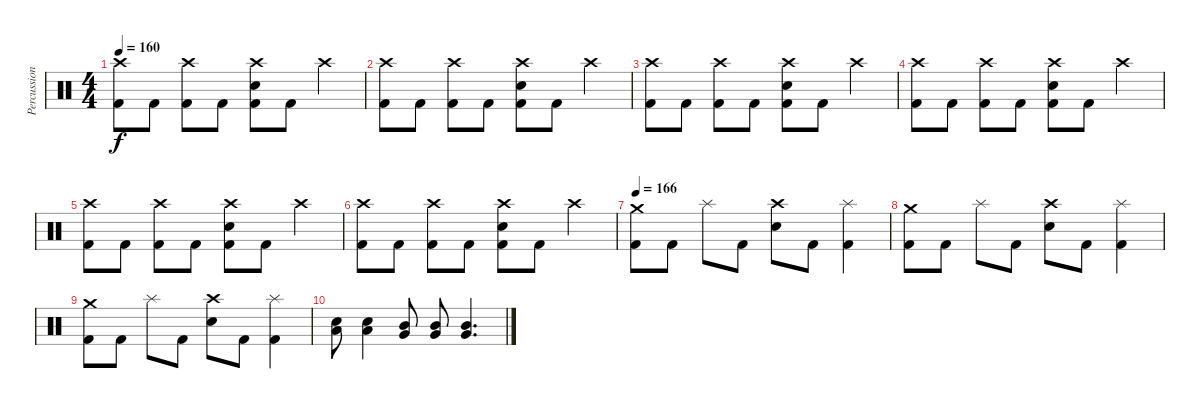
\track ("Percussion" "Percussion") {instrument percussion}
\staff {score}
\articulation defaults
\ts (4 4)
\tempo 160
\clef neutral
\ks c
("Crash high (hit)" "Kick (hit) 2").8{dy f} "Kick (hit) 2".8 ("Crash high (hit)" "Kick (hit) 2").8 "Kick (hit) 2".8 ("Crash high (hit)" "Electric Snare (hit)" "Kick (hit) 2").8 "Kick (hit) 2".8 "Crash high (hit)".4 |
("Crash high (hit)" "Kick (hit) 2").8 "Kick (hit) 2".8 ("Crash high (hit)" "Kick (hit) 2").8 "Kick (hit) 2".8 ("Crash high (hit)" "Electric Snare (hit)" "Kick (hit) 2").8 "Kick (hit) 2".8 "Crash high (hit)".4 |
("Crash high (hit)" "Kick (hit) 2").8 "Kick (hit) 2".8 ("Crash high (hit)" "Kick (hit) 2").8 "Kick (hit) 2".8 ("Crash high (hit)" "Electric Snare (hit)" "Kick (hit) 2").8 "Kick (hit) 2".8 "Crash high (hit)".4 |
("Crash high (hit)" "Kick (hit) 2").8 "Kick (hit) 2".8 ("Crash high (hit)" "Kick (hit) 2").8 "Kick (hit) 2".8 ("Crash high (hit)" "Electric Snare (hit)" "Kick (hit) 2").8 "Kick (hit) 2".8 "Crash high (hit)".4 |
("Crash high (hit)" "Kick (hit) 2").8 "Kick (hit) 2".8 ("Crash high (hit)" "Kick (hit) 2").8 "Kick (hit) 2".8 ("Crash high (hit)" "Electric Snare (hit)" "Kick (hit) 2").8 "Kick (hit) 2".8 "Crash high (hit)".4 |
("Crash high (hit)" "Kick (hit) 2").8 "Kick (hit) 2".8 ("Crash high (hit)" "Kick (hit) 2").8 "Kick (hit) 2".8 ("Crash high (hit)" "Electric Snare (hit)" "Kick (hit) 2").8 "Kick (hit) 2".8 "Crash high (hit)".4 |
\tempo 166
("Crash medium (hit)" "Kick (hit) 2").8 "Kick (hit) 2".8 "Splash (hit)".8 "Kick (hit) 2".8 ("Crash high (hit)" "Electric Snare (hit)").8 "Kick (hit) 2".8 ("Splash (hit)" "Kick (hit) 2").4 |
("Crash medium (hit)" "Kick (hit) 2").8 "Kick (hit) 2".8 "Splash (hit)".8 "Kick (hit) 2".8 ("Crash high (hit)" "Electric Snare (hit)").8 "Kick (hit) 2".8 ("Splash (hit)" "Kick (hit) 2").4 |
("Crash medium (hit)" "Kick (hit) 2").8 "Kick (hit) 2".8 "Splash (hit)".8 "Kick (hit) 2".8 ("Crash high (hit)" "Electric Snare (hit)").8 "Kick (hit) 2".8 ("Splash (hit)" "Kick (hit) 2").4 |
("Electric Snare (hit)" "Low Tom (hit)").8 ("Electric Snare (hit)" "Low Tom (hit)").4 ("Mid Tom (hit)" "Very Low Tom (hit)").8 ("Mid Tom (hit)" "Very Low Tom (hit)").8 ("Mid Tom (hit)" "Very Low Tom (hit)").4{d}
